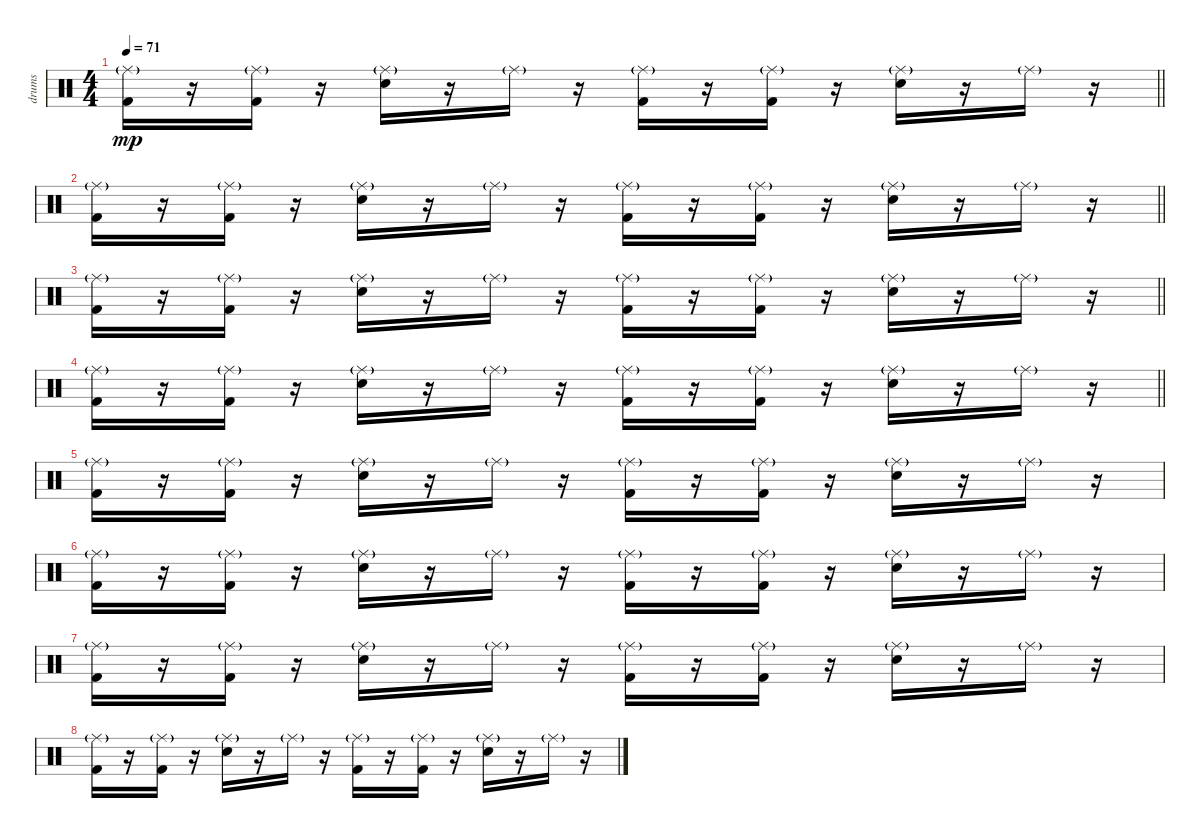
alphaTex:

\track ("drums" "drums") {instrument percussion}
\staff {score}
\articulation defaults
\ts (4 4)
\tempo 71
\clef neutral
\barLineRight lightlight
\ks c
("Kick (hit) 2" "Ride (middle)"{g}).16{dy mp} r.16 ("Kick (hit) 2" "Ride (middle)"{g}).16 r.16 ("Electric Snare (hit)" "Ride (middle)"{g}).16 r.16 "Ride (middle)"{g}.16 r.16 ("Kick (hit) 2" "Ride (middle)"{g}).16 r.16 ("Kick (hit) 2" "Ride (middle)"{g}).16 r.16 ("Electric Snare (hit)" "Ride (middle)"{g}).16 r.16 "Ride (middle)"{g}.16 r.16 |
\barLineRight lightlight
("Kick (hit) 2" "Ride (middle)"{g}).16 r.16 ("Kick (hit) 2" "Ride (middle)"{g}).16 r.16 ("Electric Snare (hit)" "Ride (middle)"{g}).16 r.16 "Ride (middle)"{g}.16 r.16 ("Kick (hit) 2" "Ride (middle)"{g}).16 r.16 ("Kick (hit) 2" "Ride (middle)"{g}).16 r.16 ("Electric Snare (hit)" "Ride (middle)"{g}).16 r.16 "Ride (middle)"{g}.16 r.16 |
\barLineRight lightlight
("Kick (hit) 2" "Ride (middle)"{g}).16 r.16 ("Kick (hit) 2" "Ride (middle)"{g}).16 r.16 ("Electric Snare (hit)" "Ride (middle)"{g}).16 r.16 "Ride (middle)"{g}.16 r.16 ("Kick (hit) 2" "Ride (middle)"{g}).16 r.16 ("Kick (hit) 2" "Ride (middle)"{g}).16 r.16 ("Electric Snare (hit)" "Ride (middle)"{g}).16 r.16 "Ride (middle)"{g}.16 r.16 |
\barLineRight lightlight
("Kick (hit) 2" "Ride (middle)"{g}).16 r.16 ("Kick (hit) 2" "Ride (middle)"{g}).16 r.16 ("Electric Snare (hit)" "Ride (middle)"{g}).16 r.16 "Ride (middle)"{g}.16 r.16 ("Kick (hit) 2" "Ride (middle)"{g}).16 r.16 ("Kick (hit) 2" "Ride (middle)"{g}).16 r.16 ("Electric Snare (hit)" "Ride (middle)"{g}).16 r.16 "Ride (middle)"{g}.16 r.16 |
("Kick (hit) 2" "Ride (middle)"{g}).16 r.16 ("Kick (hit) 2" "Ride (middle)"{g}).16 r.16 ("Electric Snare (hit)" "Ride (middle)"{g}).16 r.16 "Ride (middle)"{g}.16 r.16 ("Kick (hit) 2" "Ride (middle)"{g}).16 r.16 ("Kick (hit) 2" "Ride (middle)"{g}).16 r.16 ("Electric Snare (hit)" "Ride (middle)"{g}).16 r.16 "Ride (middle)"{g}.16 r.16 |
("Kick (hit) 2" "Ride (middle)"{g}).16 r.16 ("Kick (hit) 2" "Ride (middle)"{g}).16 r.16 ("Electric Snare (hit)" "Ride (middle)"{g}).16 r.16 "Ride (middle)"{g}.16 r.16 ("Kick (hit) 2" "Ride (middle)"{g}).16 r.16 ("Kick (hit) 2" "Ride (middle)"{g}).16 r.16 ("Electric Snare (hit)" "Ride (middle)"{g}).16 r.16 "Ride (middle)"{g}.16 r.16 |
("Kick (hit) 2" "Ride (middle)"{g}).16 r.16 ("Kick (hit) 2" "Ride (middle)"{g}).16 r.16 ("Electric Snare (hit)" "Ride (middle)"{g}).16 r.16 "Ride (middle)"{g}.16 r.16 ("Kick (hit) 2" "Ride (middle)"{g}).16 r.16 ("Kick (hit) 2" "Ride (middle)"{g}).16 r.16 ("Electric Snare (hit)" "Ride (middle)"{g}).16 r.16 "Ride (middle)"{g}.16 r.16 |
("Kick (hit) 2" "Ride (middle)"{g}).16 r.16 ("Kick (hit) 2" "Ride (middle)"{g}).16 r.16 ("Electric Snare (hit)" "Ride (middle)"{g}).16 r.16 "Ride (middle)"{g}.16 r.16 ("Kick (hit) 2" "Ride (middle)"{g}).16 r.16 ("Kick (hit) 2" "Ride (middle)"{g}).16 r.16 ("Electric Snare (hit)" "Ride (middle)"{g}).16 r.16 "Ride (middle)"{g}.16 r.16
